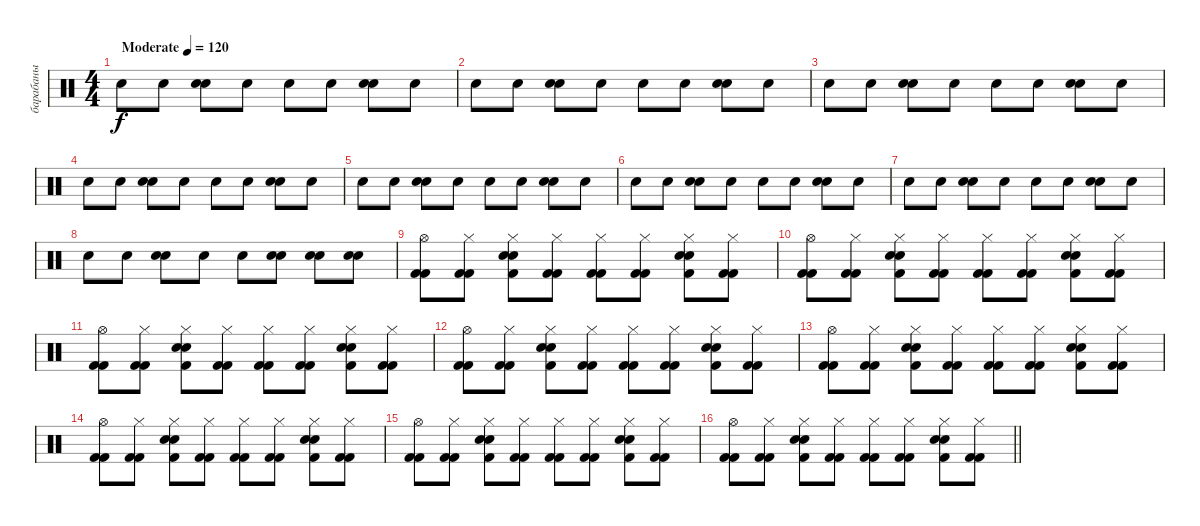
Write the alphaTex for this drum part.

\track ("барабаны" "барабаны") {instrument percussion}
\staff {score}
\articulation defaults
\ts (4 4)
\tempo (120 "Moderate")
\clef neutral
\ks c "Snare (hit)".8{dy f} "Snare (hit)".8
("Snare (hit) 2" "Electric Snare (hit)").8 "Snare (hit)".8 "Snare (hit)".8 "Snare (hit)".8 ("Snare (hit) 2" "Electric Snare (hit)").8 "Snare (hit)".8 |
"Snare (hit)".8 "Snare (hit)".8 ("Snare (hit) 2" "Electric Snare (hit)").8 "Snare (hit)".8 "Snare (hit)".8 "Snare (hit)".8 ("Snare (hit) 2" "Electric Snare (hit)").8 "Snare (hit)".8 |
"Snare (hit)".8 "Snare (hit)".8 ("Snare (hit) 2" "Electric Snare (hit)").8 "Snare (hit)".8 "Snare (hit)".8 "Snare (hit)".8 ("Snare (hit) 2" "Electric Snare (hit)").8 "Snare (hit)".8 |
"Snare (hit)".8 "Snare (hit)".8 ("Snare (hit) 2" "Electric Snare (hit)").8 "Snare (hit)".8 "Snare (hit)".8 "Snare (hit)".8 ("Snare (hit) 2" "Electric Snare (hit)").8 "Snare (hit)".8 |
"Snare (hit)".8 "Snare (hit)".8 ("Snare (hit) 2" "Electric Snare (hit)").8 "Snare (hit)".8 "Snare (hit)".8 "Snare (hit)".8 ("Snare (hit) 2" "Electric Snare (hit)").8 "Snare (hit)".8 |
"Snare (hit)".8 "Snare (hit)".8 ("Snare (hit) 2" "Electric Snare (hit)").8 "Snare (hit)".8 "Snare (hit)".8 "Snare (hit)".8 ("Snare (hit) 2" "Electric Snare (hit)").8 "Snare (hit)".8 |
"Snare (hit)".8 "Snare (hit)".8 ("Snare (hit) 2" "Electric Snare (hit)").8 "Snare (hit)".8 "Snare (hit)".8 "Snare (hit)".8 ("Snare (hit) 2" "Electric Snare (hit)").8 "Snare (hit)".8 |
"Snare (hit)".8 "Snare (hit)".8 ("Snare (hit) 2" "Electric Snare (hit)").8 "Snare (hit)".8 "Snare (hit)".8 ("Snare (hit) 2" "Electric Snare (hit)").8 ("Snare (hit) 2" "Electric Snare (hit)").8 ("Snare (hit) 2" "Electric Snare (hit)").8 |
("Hi-Hat (open)" "Kick (hit) 2" "Kick (hit) 2").8 ("Hi-Hat (closed)" "Kick (hit) 2" "Kick (hit) 2").8 ("Hi-Hat (closed)" "Snare (hit) 2" "Kick (hit) 2" "Electric Snare (hit)").8 ("Hi-Hat (closed)" "Kick (hit) 2" "Kick (hit) 2").8 ("Hi-Hat (closed)" "Kick (hit) 2" "Kick (hit) 2").8 ("Hi-Hat (closed)" "Kick (hit) 2" "Kick (hit) 2").8 ("Hi-Hat (closed)" "Snare (hit) 2" "Kick (hit) 2" "Electric Snare (hit)").8 ("Hi-Hat (closed)" "Kick (hit) 2" "Kick (hit) 2").8 |
("Hi-Hat (open)" "Kick (hit) 2" "Kick (hit) 2").8 ("Hi-Hat (closed)" "Kick (hit) 2" "Kick (hit) 2").8 ("Hi-Hat (closed)" "Snare (hit) 2" "Kick (hit) 2" "Electric Snare (hit)").8 ("Hi-Hat (closed)" "Kick (hit) 2" "Kick (hit) 2").8 ("Hi-Hat (closed)" "Kick (hit) 2" "Kick (hit) 2").8 ("Hi-Hat (closed)" "Kick (hit) 2" "Kick (hit) 2").8 ("Hi-Hat (closed)" "Snare (hit) 2" "Kick (hit) 2" "Electric Snare (hit)").8 ("Hi-Hat (closed)" "Kick (hit) 2" "Kick (hit) 2").8 |
("Hi-Hat (open)" "Kick (hit) 2" "Kick (hit) 2").8 ("Hi-Hat (closed)" "Kick (hit) 2" "Kick (hit) 2").8 ("Hi-Hat (closed)" "Snare (hit) 2" "Kick (hit) 2" "Electric Snare (hit)").8 ("Hi-Hat (closed)" "Kick (hit) 2" "Kick (hit) 2").8 ("Hi-Hat (closed)" "Kick (hit) 2" "Kick (hit) 2").8 ("Hi-Hat (closed)" "Kick (hit) 2" "Kick (hit) 2").8 ("Hi-Hat (closed)" "Snare (hit) 2" "Kick (hit) 2" "Electric Snare (hit)").8 ("Hi-Hat (closed)" "Kick (hit) 2" "Kick (hit) 2").8 |
("Hi-Hat (open)" "Kick (hit) 2" "Kick (hit) 2").8 ("Hi-Hat (closed)" "Kick (hit) 2" "Kick (hit) 2").8 ("Hi-Hat (closed)" "Snare (hit) 2" "Kick (hit) 2" "Electric Snare (hit)").8 ("Hi-Hat (closed)" "Kick (hit) 2" "Kick (hit) 2").8 ("Hi-Hat (closed)" "Kick (hit) 2" "Kick (hit) 2").8 ("Hi-Hat (closed)" "Kick (hit) 2" "Kick (hit) 2").8 ("Hi-Hat (closed)" "Snare (hit) 2" "Kick (hit) 2" "Electric Snare (hit)").8 ("Hi-Hat (closed)" "Kick (hit) 2" "Kick (hit) 2").8 |
("Hi-Hat (open)" "Kick (hit) 2" "Kick (hit) 2").8 ("Hi-Hat (closed)" "Kick (hit) 2" "Kick (hit) 2").8 ("Hi-Hat (closed)" "Snare (hit) 2" "Kick (hit) 2" "Electric Snare (hit)").8 ("Hi-Hat (closed)" "Kick (hit) 2" "Kick (hit) 2").8 ("Hi-Hat (closed)" "Kick (hit) 2" "Kick (hit) 2").8 ("Hi-Hat (closed)" "Kick (hit) 2" "Kick (hit) 2").8 ("Hi-Hat (closed)" "Snare (hit) 2" "Kick (hit) 2" "Electric Snare (hit)").8 ("Hi-Hat (closed)" "Kick (hit) 2" "Kick (hit) 2").8 |
("Hi-Hat (open)" "Kick (hit) 2" "Kick (hit) 2").8 ("Hi-Hat (closed)" "Kick (hit) 2" "Kick (hit) 2").8 ("Hi-Hat (closed)" "Snare (hit) 2" "Kick (hit) 2" "Electric Snare (hit)").8 ("Hi-Hat (closed)" "Kick (hit) 2" "Kick (hit) 2").8 ("Hi-Hat (closed)" "Kick (hit) 2" "Kick (hit) 2").8 ("Hi-Hat (closed)" "Kick (hit) 2" "Kick (hit) 2").8 ("Hi-Hat (closed)" "Snare (hit) 2" "Kick (hit) 2" "Electric Snare (hit)").8 ("Hi-Hat (closed)" "Kick (hit) 2" "Kick (hit) 2").8 |
("Hi-Hat (open)" "Kick (hit) 2" "Kick (hit) 2").8 ("Hi-Hat (closed)" "Kick (hit) 2" "Kick (hit) 2").8 ("Hi-Hat (closed)" "Snare (hit) 2" "Kick (hit) 2" "Electric Snare (hit)").8 ("Hi-Hat (closed)" "Kick (hit) 2" "Kick (hit) 2").8 ("Hi-Hat (closed)" "Kick (hit) 2" "Kick (hit) 2").8 ("Hi-Hat (closed)" "Kick (hit) 2" "Kick (hit) 2").8 ("Hi-Hat (closed)" "Snare (hit) 2" "Kick (hit) 2" "Electric Snare (hit)").8 ("Hi-Hat (closed)" "Kick (hit) 2" "Kick (hit) 2").8 |
\barLineRight lightlight
("Hi-Hat (open)" "Kick (hit) 2" "Kick (hit) 2").8 ("Hi-Hat (closed)" "Kick (hit) 2" "Kick (hit) 2").8 ("Hi-Hat (closed)" "Snare (hit) 2" "Kick (hit) 2" "Electric Snare (hit)").8 ("Hi-Hat (closed)" "Kick (hit) 2" "Kick (hit) 2").8 ("Hi-Hat (closed)" "Kick (hit) 2" "Kick (hit) 2").8 ("Hi-Hat (closed)" "Kick (hit) 2" "Kick (hit) 2").8 ("Hi-Hat (closed)" "Snare (hit) 2" "Kick (hit) 2" "Electric Snare (hit)").8 ("Hi-Hat (closed)" "Kick (hit) 2" "Kick (hit) 2").8
